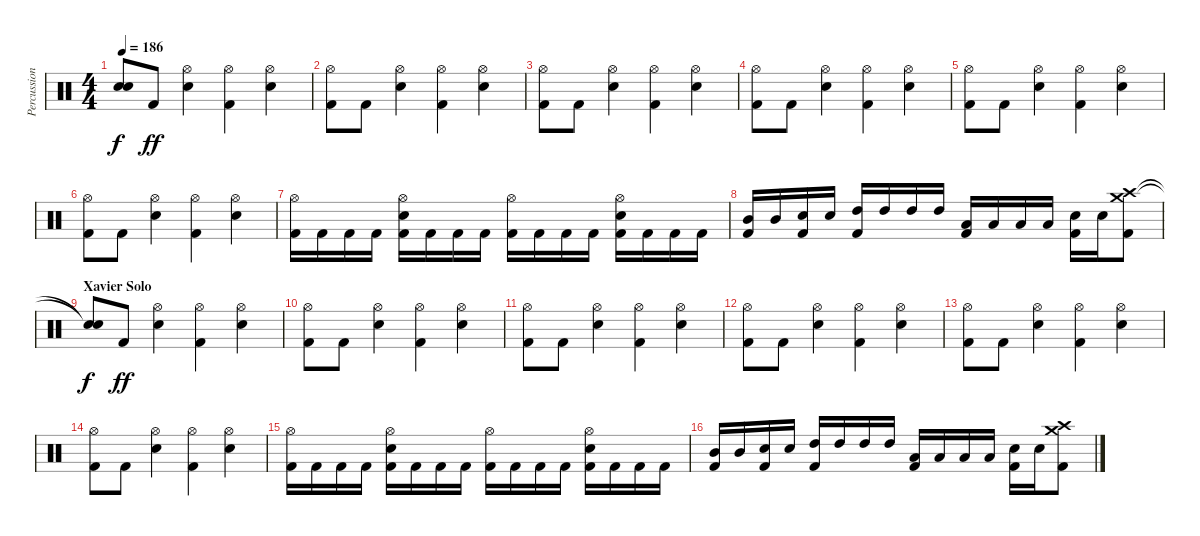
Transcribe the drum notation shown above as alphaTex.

\track ("Percussion" "Percussion") {instrument percussion}
\staff {score}
\articulation defaults
\ts (4 4)
\tempo 186
\clef neutral
\ks c
("Snare (hit)"{t} "Snare (hit)"{t}).8{dy f} "Kick (hit) 2".8{dy ff} ("Hi-Hat (open)" "Snare (hit) 2").4 ("Hi-Hat (open)" "Kick (hit) 2").4 ("Hi-Hat (open)" "Snare (hit) 2").4 |
("Hi-Hat (open)" "Kick (hit) 2").8 "Kick (hit) 2".8 ("Hi-Hat (open)" "Snare (hit) 2").4 ("Hi-Hat (open)" "Kick (hit) 2").4 ("Hi-Hat (open)" "Snare (hit) 2").4 |
("Hi-Hat (open)" "Kick (hit) 2").8 "Kick (hit) 2".8 ("Hi-Hat (open)" "Snare (hit) 2").4 ("Hi-Hat (open)" "Kick (hit) 2").4 ("Hi-Hat (open)" "Snare (hit) 2").4 |
("Hi-Hat (open)" "Kick (hit) 2").8 "Kick (hit) 2".8 ("Hi-Hat (open)" "Snare (hit) 2").4 ("Hi-Hat (open)" "Kick (hit) 2").4 ("Hi-Hat (open)" "Snare (hit) 2").4 |
("Hi-Hat (open)" "Kick (hit) 2").8 "Kick (hit) 2".8 ("Hi-Hat (open)" "Snare (hit) 2").4 ("Hi-Hat (open)" "Kick (hit) 2").4 ("Hi-Hat (open)" "Snare (hit) 2").4 |
("Hi-Hat (open)" "Kick (hit) 2").8 "Kick (hit) 2".8 ("Hi-Hat (open)" "Snare (hit) 2").4 ("Hi-Hat (open)" "Kick (hit) 2").4 ("Hi-Hat (open)" "Snare (hit) 2").4 |
("Hi-Hat (open)" "Kick (hit) 2").16 "Kick (hit) 2".16 "Kick (hit) 2".16 "Kick (hit) 2".16 ("Hi-Hat (open)" "Snare (hit) 2" "Kick (hit) 2").16 "Kick (hit) 2".16 "Kick (hit) 2".16 "Kick (hit) 2".16 ("Hi-Hat (open)" "Kick (hit) 2").16 "Kick (hit) 2".16 "Kick (hit) 2".16 "Kick (hit) 2".16 ("Hi-Hat (open)" "Snare (hit) 2" "Kick (hit) 2").16 "Kick (hit) 2".16 "Kick (hit) 2".16 "Kick (hit) 2".16 |
("Mid Tom (hit)" "Kick (hit) 2").16 "Mid Tom (hit)".16 ("Snare (hit) 2" "Kick (hit) 2").16 "Snare (hit) 2".16 ("High Tom (hit)" "Kick (hit) 2").16 "High Tom (hit)".16 "High Tom (hit)".16 "High Tom (hit)".16 ("Low Tom (hit)" "Kick (hit) 2").16 "Low Tom (hit)".16 "Low Tom (hit)".16 "Low Tom (hit)".16 ("Snare (hit) 2" "Kick (hit) 2").16 "Snare (hit) 2".16 ("Crash medium (hit)" "Crash high (hit)" "Kick (hit) 2").8 |
\section ("" "Xavier Solo")
("Snare (hit)"{t} "Snare (hit)"{t}).8{dy f} "Kick (hit) 2".8{dy ff} ("Hi-Hat (open)" "Snare (hit) 2").4 ("Hi-Hat (open)" "Kick (hit) 2").4 ("Hi-Hat (open)" "Snare (hit) 2").4 |
("Hi-Hat (open)" "Kick (hit) 2").8 "Kick (hit) 2".8 ("Hi-Hat (open)" "Snare (hit) 2").4 ("Hi-Hat (open)" "Kick (hit) 2").4 ("Hi-Hat (open)" "Snare (hit) 2").4 |
("Hi-Hat (open)" "Kick (hit) 2").8 "Kick (hit) 2".8 ("Hi-Hat (open)" "Snare (hit) 2").4 ("Hi-Hat (open)" "Kick (hit) 2").4 ("Hi-Hat (open)" "Snare (hit) 2").4 |
("Hi-Hat (open)" "Kick (hit) 2").8 "Kick (hit) 2".8 ("Hi-Hat (open)" "Snare (hit) 2").4 ("Hi-Hat (open)" "Kick (hit) 2").4 ("Hi-Hat (open)" "Snare (hit) 2").4 |
("Hi-Hat (open)" "Kick (hit) 2").8 "Kick (hit) 2".8 ("Hi-Hat (open)" "Snare (hit) 2").4 ("Hi-Hat (open)" "Kick (hit) 2").4 ("Hi-Hat (open)" "Snare (hit) 2").4 |
("Hi-Hat (open)" "Kick (hit) 2").8 "Kick (hit) 2".8 ("Hi-Hat (open)" "Snare (hit) 2").4 ("Hi-Hat (open)" "Kick (hit) 2").4 ("Hi-Hat (open)" "Snare (hit) 2").4 |
("Hi-Hat (open)" "Kick (hit) 2").16 "Kick (hit) 2".16 "Kick (hit) 2".16 "Kick (hit) 2".16 ("Hi-Hat (open)" "Snare (hit) 2" "Kick (hit) 2").16 "Kick (hit) 2".16 "Kick (hit) 2".16 "Kick (hit) 2".16 ("Hi-Hat (open)" "Kick (hit) 2").16 "Kick (hit) 2".16 "Kick (hit) 2".16 "Kick (hit) 2".16 ("Hi-Hat (open)" "Snare (hit) 2" "Kick (hit) 2").16 "Kick (hit) 2".16 "Kick (hit) 2".16 "Kick (hit) 2".16 |
("Mid Tom (hit)" "Kick (hit) 2").16 "Mid Tom (hit)".16 ("Snare (hit) 2" "Kick (hit) 2").16 "Snare (hit) 2".16 ("High Tom (hit)" "Kick (hit) 2").16 "High Tom (hit)".16 "High Tom (hit)".16 "High Tom (hit)".16 ("Low Tom (hit)" "Kick (hit) 2").16 "Low Tom (hit)".16 "Low Tom (hit)".16 "Low Tom (hit)".16 ("Snare (hit) 2" "Kick (hit) 2").16 "Snare (hit) 2".16 ("Crash medium (hit)" "Crash high (hit)" "Kick (hit) 2").8
